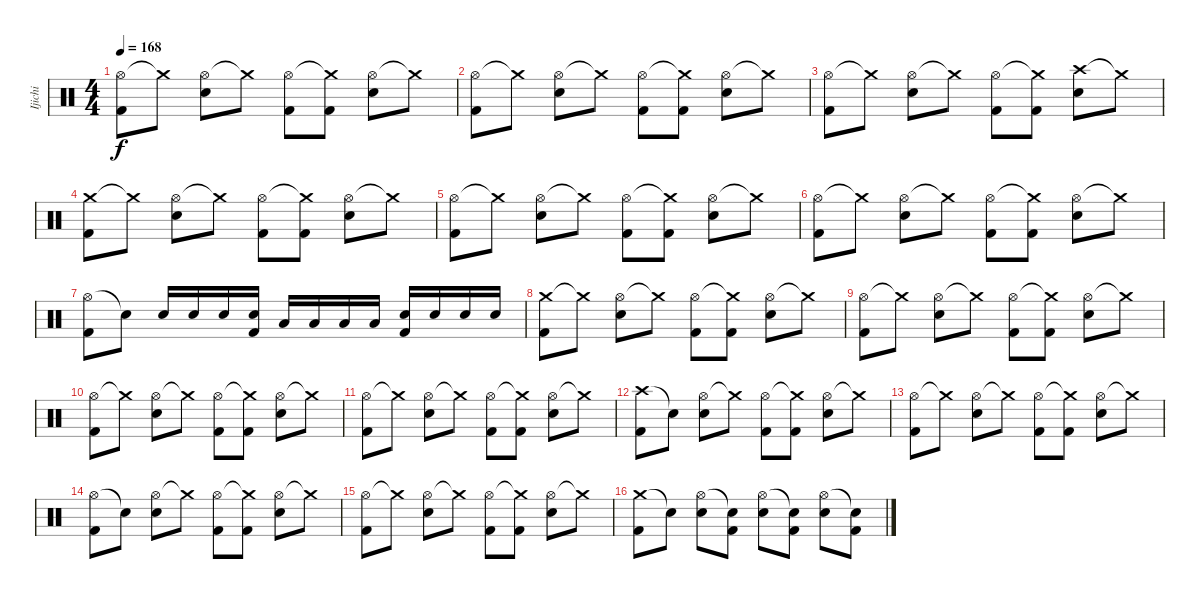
\track ("Ijichi" "Ijichi") {instrument percussion}
\staff {score}
\articulation defaults
\ts (4 4)
\tempo 168
\clef neutral
\ks c
("Hi-Hat (open)" "Kick (hit) 2").8{dy f} "Crash medium (hit)"{t}.8 ("Hi-Hat (open)" "Electric Snare (hit)").8 "Crash medium (hit)"{t}.8 ("Hi-Hat (open)" "Kick (hit) 2").8 ("Crash medium (hit)"{t} "Kick (hit) 2").8 ("Hi-Hat (open)" "Electric Snare (hit)").8 "Crash medium (hit)"{t}.8 |
("Hi-Hat (open)" "Kick (hit) 2").8 "Crash medium (hit)"{t}.8 ("Hi-Hat (open)" "Electric Snare (hit)").8 "Crash medium (hit)"{t}.8 ("Hi-Hat (open)" "Kick (hit) 2").8 ("Crash medium (hit)"{t} "Kick (hit) 2").8 ("Hi-Hat (open)" "Electric Snare (hit)").8 "Crash medium (hit)"{t}.8 |
("Hi-Hat (open)" "Kick (hit) 2").8 "Crash medium (hit)"{t}.8 ("Hi-Hat (open)" "Electric Snare (hit)").8 "Crash medium (hit)"{t}.8 ("Hi-Hat (open)" "Kick (hit) 2").8 ("Crash medium (hit)"{t} "Kick (hit) 2").8 ("Crash high (hit)" "Electric Snare (hit)").8 "Crash medium (hit)"{t}.8 |
("Crash medium (hit)" "Kick (hit) 2").8 "Crash medium (hit)"{t}.8 ("Hi-Hat (open)" "Electric Snare (hit)").8 "Crash medium (hit)"{t}.8 ("Hi-Hat (open)" "Kick (hit) 2").8 ("Crash medium (hit)"{t} "Kick (hit) 2").8 ("Hi-Hat (open)" "Electric Snare (hit)").8 "Crash medium (hit)"{t}.8 |
("Hi-Hat (open)" "Kick (hit) 2").8 "Crash medium (hit)"{t}.8 ("Hi-Hat (open)" "Electric Snare (hit)").8 "Crash medium (hit)"{t}.8 ("Hi-Hat (open)" "Kick (hit) 2").8 ("Crash medium (hit)"{t} "Kick (hit) 2").8 ("Hi-Hat (open)" "Electric Snare (hit)").8 "Crash medium (hit)"{t}.8 |
("Hi-Hat (open)" "Kick (hit) 2").8 "Crash medium (hit)"{t}.8 ("Hi-Hat (open)" "Electric Snare (hit)").8 "Crash medium (hit)"{t}.8 ("Hi-Hat (open)" "Kick (hit) 2").8 ("Crash medium (hit)"{t} "Kick (hit) 2").8 ("Hi-Hat (open)" "Electric Snare (hit)").8 "Crash medium (hit)"{t}.8 |
("Hi-Hat (open)" "Kick (hit) 2").8 "Snare (hit)"{t}.8 "Electric Snare (hit)".16 "Electric Snare (hit)".16 "Electric Snare (hit)".16 ("Electric Snare (hit)" "Kick (hit) 2").16 "Low Floor Tom (hit)".16 "Low Floor Tom (hit)".16 "Low Floor Tom (hit)".16 "Low Floor Tom (hit)".16 ("Electric Snare (hit)" "Kick (hit) 2").16 "Electric Snare (hit)".16 "Electric Snare (hit)".16 "Electric Snare (hit)".16 |
("Crash medium (hit)" "Kick (hit) 2").8 "Crash medium (hit)"{t}.8 ("Hi-Hat (open)" "Electric Snare (hit)").8 "Crash medium (hit)"{t}.8 ("Hi-Hat (open)" "Kick (hit) 2").8 ("Crash medium (hit)"{t} "Kick (hit) 2").8 ("Hi-Hat (open)" "Electric Snare (hit)").8 "Crash medium (hit)"{t}.8 |
("Hi-Hat (open)" "Kick (hit) 2").8 "Crash medium (hit)"{t}.8 ("Hi-Hat (open)" "Electric Snare (hit)").8 "Crash medium (hit)"{t}.8 ("Hi-Hat (open)" "Kick (hit) 2").8 ("Crash medium (hit)"{t} "Kick (hit) 2").8 ("Hi-Hat (open)" "Electric Snare (hit)").8 "Crash medium (hit)"{t}.8 |
("Hi-Hat (open)" "Kick (hit) 2").8 "Crash medium (hit)"{t}.8 ("Hi-Hat (open)" "Electric Snare (hit)").8 "Crash medium (hit)"{t}.8 ("Hi-Hat (open)" "Kick (hit) 2").8 ("Crash medium (hit)"{t} "Kick (hit) 2").8 ("Hi-Hat (open)" "Electric Snare (hit)").8 "Crash medium (hit)"{t}.8 |
("Hi-Hat (open)" "Kick (hit) 2").8 "Crash medium (hit)"{t}.8 ("Hi-Hat (open)" "Electric Snare (hit)").8 "Crash medium (hit)"{t}.8 ("Hi-Hat (open)" "Kick (hit) 2").8 ("Crash medium (hit)"{t} "Kick (hit) 2").8 ("Hi-Hat (open)" "Electric Snare (hit)").8 "Crash medium (hit)"{t}.8 |
("Crash high (hit)" "Kick (hit) 2").8 "Snare (hit)"{t}.8 ("Hi-Hat (open)" "Electric Snare (hit)").8 "Crash medium (hit)"{t}.8 ("Hi-Hat (open)" "Kick (hit) 2").8 ("Crash medium (hit)"{t} "Kick (hit) 2").8 ("Hi-Hat (open)" "Electric Snare (hit)").8 "Crash medium (hit)"{t}.8 |
("Hi-Hat (open)" "Kick (hit) 2").8 "Crash medium (hit)"{t}.8 ("Hi-Hat (open)" "Electric Snare (hit)").8 "Crash medium (hit)"{t}.8 ("Hi-Hat (open)" "Kick (hit) 2").8 ("Crash medium (hit)"{t} "Kick (hit) 2").8 ("Hi-Hat (open)" "Electric Snare (hit)").8 "Crash medium (hit)"{t}.8 |
("Hi-Hat (open)" "Kick (hit) 2").8 "Snare (hit)"{t}.8 ("Hi-Hat (open)" "Electric Snare (hit)").8 "Crash medium (hit)"{t}.8 ("Hi-Hat (open)" "Kick (hit) 2").8 ("Crash medium (hit)"{t} "Kick (hit) 2").8 ("Hi-Hat (open)" "Electric Snare (hit)").8 "Crash medium (hit)"{t}.8 |
("Hi-Hat (open)" "Kick (hit) 2").8 "Crash medium (hit)"{t}.8 ("Hi-Hat (open)" "Electric Snare (hit)").8 "Crash medium (hit)"{t}.8 ("Hi-Hat (open)" "Kick (hit) 2").8 ("Crash medium (hit)"{t} "Kick (hit) 2").8 ("Hi-Hat (open)" "Electric Snare (hit)").8 "Crash medium (hit)"{t}.8 |
("Crash medium (hit)" "Kick (hit) 2").8 "Snare (hit)"{t}.8 ("Hi-Hat (open)" "Electric Snare (hit)").8 ("Snare (hit)"{t} "Kick (hit) 2").8 ("Hi-Hat (open)" "Electric Snare (hit)").8 ("Snare (hit)"{t} "Kick (hit) 2").8 ("Hi-Hat (open)" "Electric Snare (hit)").8 ("Snare (hit)"{t} "Kick (hit) 2").8
